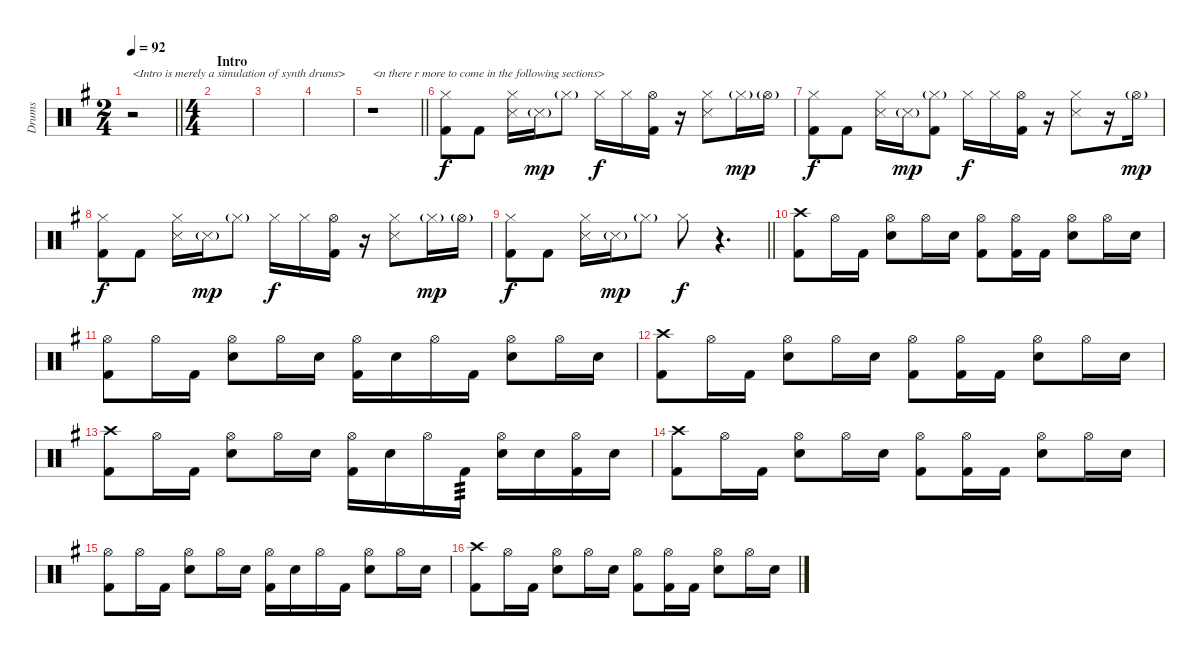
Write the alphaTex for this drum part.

\track ("Drums" "Drums") {instrument percussion}
\staff {score}
\articulation defaults
\ts (2 4)
\tempo 92
\clef neutral
\barLineRight lightlight
\ks g
r.2{txt "<Intro is merely a simulation of synth drums>" dy f} |
\ts (4 4)
\section ("" "Intro")
|
|
|
\barLineRight lightlight
r.1{txt "<n there r more to come in the following sections>"} |
\section ("" "")
("Hi-Hat (closed)" "Kick (hit) 2").8 "Kick (hit) 2".8 ("Hi-Hat (closed)" "Snare (side stick) 3").16 "Snare (side stick) 3"{g}.16{dy mp} "Hi-Hat (closed)"{g}.8 "Hi-Hat (closed)".16{dy f} "Hi-Hat (closed)".16 ("Hi-Hat (open)" "Kick (hit) 2").16 r.16 ("Hi-Hat (closed)" "Snare (side stick) 3").8 "Hi-Hat (closed)"{g}.16{dy mp} "Hi-Hat (open)"{g}.16 |
("Hi-Hat (closed)" "Kick (hit) 2").8{dy f} "Kick (hit) 2".8 ("Hi-Hat (closed)" "Snare (side stick) 3").16 "Snare (side stick) 3"{g}.16{dy mp} ("Hi-Hat (closed)"{g} "Kick (hit) 2").8 "Hi-Hat (closed)".16{dy f} "Hi-Hat (closed)".16 ("Hi-Hat (open)" "Kick (hit) 2").16 r.16 ("Hi-Hat (closed)" "Snare (side stick) 3").8 r.16 "Hi-Hat (open)"{g}.16{dy mp} |
("Hi-Hat (closed)" "Kick (hit) 2").8{dy f} "Kick (hit) 2".8 ("Hi-Hat (closed)" "Snare (side stick) 3").16 "Snare (side stick) 3"{g}.16{dy mp} "Hi-Hat (closed)"{g}.8 "Hi-Hat (closed)".16{dy f} "Hi-Hat (closed)".16 ("Hi-Hat (open)" "Kick (hit) 2").16 r.16 ("Hi-Hat (closed)" "Snare (side stick) 3").8 "Hi-Hat (closed)"{g}.16{dy mp} "Hi-Hat (open)"{g}.16 |
\barLineRight lightlight
("Hi-Hat (closed)" "Kick (hit) 2").8{dy f} "Kick (hit) 2".8 ("Hi-Hat (closed)" "Snare (side stick) 3").16 "Snare (side stick) 3"{g}.16{dy mp} "Hi-Hat (closed)"{g}.8 "Hi-Hat (closed)".8{dy f} r.4{d} |
\section ("" "")
("Crash high (hit)" "Kick (hit) 2").8 "Hi-Hat (open)".16 "Kick (hit) 2".16 ("Hi-Hat (open)" "Electric Snare (hit)").8 "Hi-Hat (open)".16 "Electric Snare (hit)".16 ("Hi-Hat (open)" "Kick (hit) 2").8 ("Hi-Hat (open)" "Kick (hit) 2").16 "Kick (hit) 2".16 ("Hi-Hat (open)" "Electric Snare (hit)").8 "Hi-Hat (open)".16 "Electric Snare (hit)".16 |
("Hi-Hat (open)" "Kick (hit) 2").8 "Hi-Hat (open)".16 "Kick (hit) 2".16 ("Hi-Hat (open)" "Electric Snare (hit)").8 "Hi-Hat (open)".16 "Electric Snare (hit)".16 ("Hi-Hat (open)" "Kick (hit) 2").16 "Electric Snare (hit)".16 "Hi-Hat (open)".16 "Kick (hit) 2".16 ("Hi-Hat (open)" "Electric Snare (hit)").8 "Hi-Hat (open)".16 "Electric Snare (hit)".16 |
("Crash high (hit)" "Kick (hit) 2").8 "Hi-Hat (open)".16 "Kick (hit) 2".16 ("Hi-Hat (open)" "Electric Snare (hit)").8 "Hi-Hat (open)".16 "Electric Snare (hit)".16 ("Hi-Hat (open)" "Kick (hit) 2").8 ("Hi-Hat (open)" "Kick (hit) 2").16 "Kick (hit) 2".16 ("Hi-Hat (open)" "Electric Snare (hit)").8 "Hi-Hat (open)".16 "Electric Snare (hit)".16 |
("Crash high (hit)" "Kick (hit) 2").8 "Hi-Hat (open)".16 "Kick (hit) 2".16 ("Hi-Hat (open)" "Electric Snare (hit)").8 "Hi-Hat (open)".16 "Electric Snare (hit)".16 ("Hi-Hat (open)" "Kick (hit) 2").16 "Electric Snare (hit)".16 "Hi-Hat (open)".16 "Kick (hit) 2".16{tp 3} ("Hi-Hat (open)" "Electric Snare (hit)").16 "Electric Snare (hit)".16 ("Hi-Hat (open)" "Kick (hit) 2").16 "Electric Snare (hit)".16 |
("Crash high (hit)" "Kick (hit) 2").8 "Hi-Hat (open)".16 "Kick (hit) 2".16 ("Hi-Hat (open)" "Electric Snare (hit)").8 "Hi-Hat (open)".16 "Electric Snare (hit)".16 ("Hi-Hat (open)" "Kick (hit) 2").8 ("Hi-Hat (open)" "Kick (hit) 2").16 "Kick (hit) 2".16 ("Hi-Hat (open)" "Electric Snare (hit)").8 "Hi-Hat (open)".16 "Electric Snare (hit)".16 |
("Hi-Hat (open)" "Kick (hit) 2").8 "Hi-Hat (open)".16 "Kick (hit) 2".16 ("Hi-Hat (open)" "Electric Snare (hit)").8 "Hi-Hat (open)".16 "Electric Snare (hit)".16 ("Hi-Hat (open)" "Kick (hit) 2").16 "Electric Snare (hit)".16 "Hi-Hat (open)".16 "Kick (hit) 2".16 ("Hi-Hat (open)" "Electric Snare (hit)").8 "Hi-Hat (open)".16 "Electric Snare (hit)".16 |
("Crash high (hit)" "Kick (hit) 2").8 "Hi-Hat (open)".16 "Kick (hit) 2".16 ("Hi-Hat (open)" "Electric Snare (hit)").8 "Hi-Hat (open)".16 "Electric Snare (hit)".16 ("Hi-Hat (open)" "Kick (hit) 2").8 ("Hi-Hat (open)" "Kick (hit) 2").16 "Kick (hit) 2".16 ("Hi-Hat (open)" "Electric Snare (hit)").8 "Hi-Hat (open)".16 "Electric Snare (hit)".16
